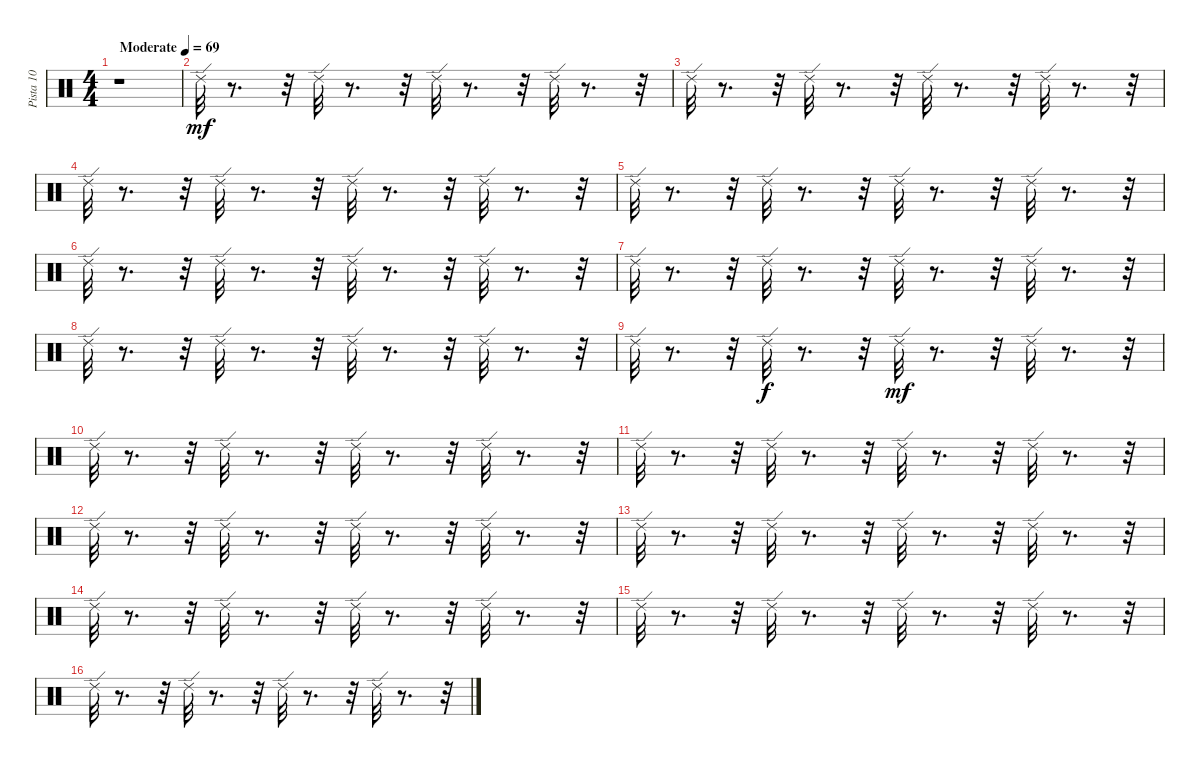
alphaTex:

\track ("Pista 10" "Pista 10") {instrument percussion}
\staff {score}
\articulation defaults
\ts (4 4)
\tempo (69 "Moderate")
\clef neutral
\ks c
r.1{dy mf} |
"Ride (edge) 2".32 r.8{d} r.32 "Ride (edge) 2".32 r.8{d} r.32 "Ride (edge) 2".32 r.8{d} r.32 "Ride (edge) 2".32 r.8{d} r.32 |
"Ride (edge) 2".32 r.8{d} r.32 "Ride (edge) 2".32 r.8{d} r.32 "Ride (edge) 2".32 r.8{d} r.32 "Ride (edge) 2".32 r.8{d} r.32 |
"Ride (edge) 2".32 r.8{d} r.32 "Ride (edge) 2".32 r.8{d} r.32 "Ride (edge) 2".32 r.8{d} r.32 "Ride (edge) 2".32 r.8{d} r.32 |
"Ride (edge) 2".32 r.8{d} r.32 "Ride (edge) 2".32 r.8{d} r.32 "Ride (edge) 2".32 r.8{d} r.32 "Ride (edge) 2".32 r.8{d} r.32 |
"Ride (edge) 2".32 r.8{d} r.32 "Ride (edge) 2".32 r.8{d} r.32 "Ride (edge) 2".32 r.8{d} r.32 "Ride (edge) 2".32 r.8{d} r.32 |
"Ride (edge) 2".32 r.8{d} r.32 "Ride (edge) 2".32 r.8{d} r.32 "Ride (edge) 2".32 r.8{d} r.32 "Ride (edge) 2".32 r.8{d} r.32 |
"Ride (edge) 2".32 r.8{d} r.32 "Ride (edge) 2".32 r.8{d} r.32 "Ride (edge) 2".32 r.8{d} r.32 "Ride (edge) 2".32 r.8{d} r.32 |
"Ride (edge) 2".32 r.8{d} r.32 "Ride (edge) 2".32{dy f} r.8{d} r.32 "Ride (edge) 2".32{dy mf} r.8{d} r.32 "Ride (edge) 2".32 r.8{d} r.32 |
"Ride (edge) 2".32 r.8{d} r.32 "Ride (edge) 2".32 r.8{d} r.32 "Ride (edge) 2".32 r.8{d} r.32 "Ride (edge) 2".32 r.8{d} r.32 |
"Ride (edge) 2".32 r.8{d} r.32 "Ride (edge) 2".32 r.8{d} r.32 "Ride (edge) 2".32 r.8{d} r.32 "Ride (edge) 2".32 r.8{d} r.32 |
"Ride (edge) 2".32 r.8{d} r.32 "Ride (edge) 2".32 r.8{d} r.32 "Ride (edge) 2".32 r.8{d} r.32 "Ride (edge) 2".32 r.8{d} r.32 |
"Ride (edge) 2".32 r.8{d} r.32 "Ride (edge) 2".32 r.8{d} r.32 "Ride (edge) 2".32 r.8{d} r.32 "Ride (edge) 2".32 r.8{d} r.32 |
"Ride (edge) 2".32 r.8{d} r.32 "Ride (edge) 2".32 r.8{d} r.32 "Ride (edge) 2".32 r.8{d} r.32 "Ride (edge) 2".32 r.8{d} r.32 |
"Ride (edge) 2".32 r.8{d} r.32 "Ride (edge) 2".32 r.8{d} r.32 "Ride (edge) 2".32 r.8{d} r.32 "Ride (edge) 2".32 r.8{d} r.32 |
"Ride (edge) 2".32 r.8{d} r.32 "Ride (edge) 2".32 r.8{d} r.32 "Ride (edge) 2".32 r.8{d} r.32 "Ride (edge) 2".32 r.8{d} r.32
